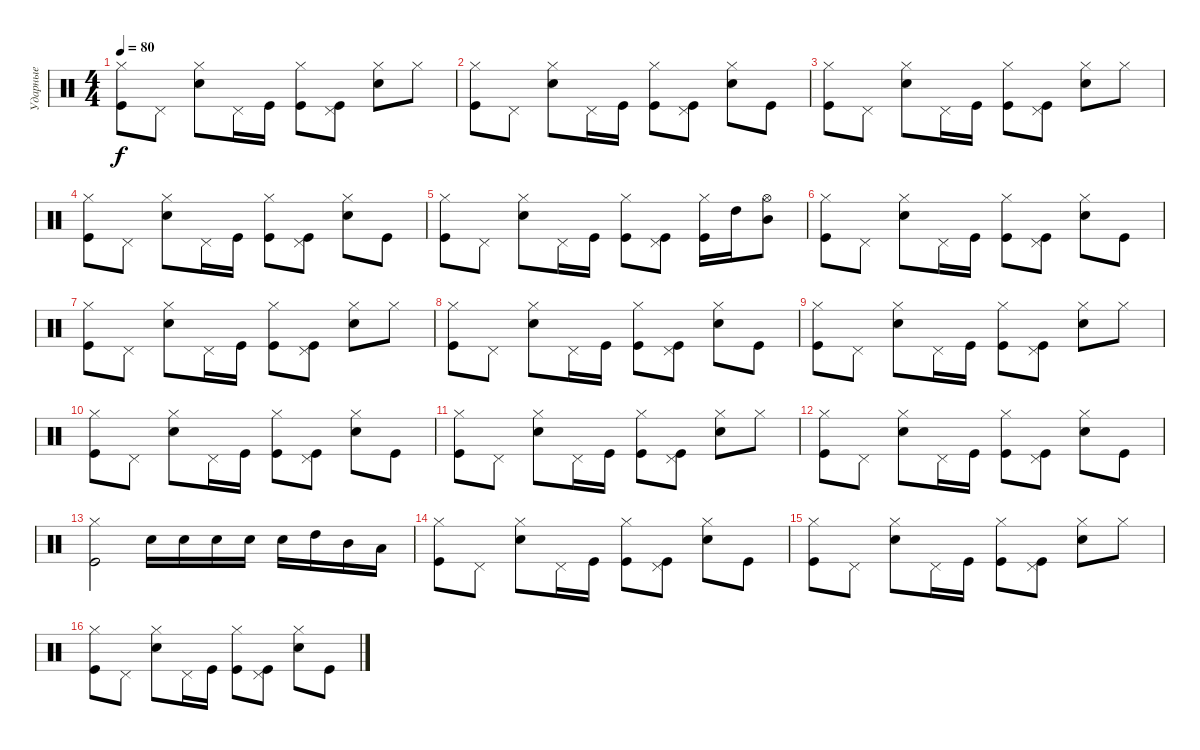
\track ("Ударные" "Ударные") {instrument percussion}
\staff {score}
\articulation defaults
\ts (4 4)
\tempo 80
\clef neutral
\ks c
("Kick (hit)" "Hi-Hat (closed)").8{dy f} "Pedal Hi-Hat (hit)".8 ("Snare (hit) 2" "Hi-Hat (closed)").8 "Pedal Hi-Hat (hit)".16 "Kick (hit)".16 ("Kick (hit)" "Hi-Hat (closed)").8 ("Kick (hit)" "Pedal Hi-Hat (hit)").8 ("Snare (hit) 2" "Hi-Hat (closed)").8 "Hi-Hat (closed)".8 |
("Kick (hit)" "Hi-Hat (closed)").8 "Pedal Hi-Hat (hit)".8 ("Snare (hit) 2" "Hi-Hat (closed)").8 "Pedal Hi-Hat (hit)".16 "Kick (hit)".16 ("Kick (hit)" "Hi-Hat (closed)").8 ("Kick (hit)" "Pedal Hi-Hat (hit)").8 ("Snare (hit) 2" "Hi-Hat (closed)").8 "Kick (hit)".8 |
("Kick (hit)" "Hi-Hat (closed)").8 "Pedal Hi-Hat (hit)".8 ("Snare (hit) 2" "Hi-Hat (closed)").8 "Pedal Hi-Hat (hit)".16 "Kick (hit)".16 ("Kick (hit)" "Hi-Hat (closed)").8 ("Kick (hit)" "Pedal Hi-Hat (hit)").8 ("Snare (hit) 2" "Hi-Hat (closed)").8 "Hi-Hat (closed)".8 |
("Kick (hit)" "Hi-Hat (closed)").8 "Pedal Hi-Hat (hit)".8 ("Snare (hit) 2" "Hi-Hat (closed)").8 "Pedal Hi-Hat (hit)".16 "Kick (hit)".16 ("Kick (hit)" "Hi-Hat (closed)").8 ("Kick (hit)" "Pedal Hi-Hat (hit)").8 ("Snare (hit) 2" "Hi-Hat (closed)").8 "Kick (hit)".8 |
("Kick (hit)" "Hi-Hat (closed)").8 "Pedal Hi-Hat (hit)".8 ("Snare (hit) 2" "Hi-Hat (closed)").8 "Pedal Hi-Hat (hit)".16 "Kick (hit)".16 ("Kick (hit)" "Hi-Hat (closed)").8 ("Kick (hit)" "Pedal Hi-Hat (hit)").8 ("Kick (hit)" "Hi-Hat (closed)").16 "High Tom (hit)".16 ("Mid Tom (hit)" "Hi-Hat (open)").8 |
("Kick (hit)" "Hi-Hat (closed)").8 "Pedal Hi-Hat (hit)".8 ("Snare (hit) 2" "Hi-Hat (closed)").8 "Pedal Hi-Hat (hit)".16 "Kick (hit)".16 ("Kick (hit)" "Hi-Hat (closed)").8 ("Kick (hit)" "Pedal Hi-Hat (hit)").8 ("Snare (hit) 2" "Hi-Hat (closed)").8 "Kick (hit)".8 |
("Kick (hit)" "Hi-Hat (closed)").8 "Pedal Hi-Hat (hit)".8 ("Snare (hit) 2" "Hi-Hat (closed)").8 "Pedal Hi-Hat (hit)".16 "Kick (hit)".16 ("Kick (hit)" "Hi-Hat (closed)").8 ("Kick (hit)" "Pedal Hi-Hat (hit)").8 ("Snare (hit) 2" "Hi-Hat (closed)").8 "Hi-Hat (closed)".8 |
("Kick (hit)" "Hi-Hat (closed)").8 "Pedal Hi-Hat (hit)".8 ("Snare (hit) 2" "Hi-Hat (closed)").8 "Pedal Hi-Hat (hit)".16 "Kick (hit)".16 ("Kick (hit)" "Hi-Hat (closed)").8 ("Kick (hit)" "Pedal Hi-Hat (hit)").8 ("Snare (hit) 2" "Hi-Hat (closed)").8 "Kick (hit)".8 |
("Kick (hit)" "Hi-Hat (closed)").8 "Pedal Hi-Hat (hit)".8 ("Snare (hit) 2" "Hi-Hat (closed)").8 "Pedal Hi-Hat (hit)".16 "Kick (hit)".16 ("Kick (hit)" "Hi-Hat (closed)").8 ("Kick (hit)" "Pedal Hi-Hat (hit)").8 ("Snare (hit) 2" "Hi-Hat (closed)").8 "Hi-Hat (closed)".8 |
("Kick (hit)" "Hi-Hat (closed)").8 "Pedal Hi-Hat (hit)".8 ("Snare (hit) 2" "Hi-Hat (closed)").8 "Pedal Hi-Hat (hit)".16 "Kick (hit)".16 ("Kick (hit)" "Hi-Hat (closed)").8 ("Kick (hit)" "Pedal Hi-Hat (hit)").8 ("Snare (hit) 2" "Hi-Hat (closed)").8 "Kick (hit)".8 |
("Kick (hit)" "Hi-Hat (closed)").8 "Pedal Hi-Hat (hit)".8 ("Snare (hit) 2" "Hi-Hat (closed)").8 "Pedal Hi-Hat (hit)".16 "Kick (hit)".16 ("Kick (hit)" "Hi-Hat (closed)").8 ("Kick (hit)" "Pedal Hi-Hat (hit)").8 ("Snare (hit) 2" "Hi-Hat (closed)").8 "Hi-Hat (closed)".8 |
("Kick (hit)" "Hi-Hat (closed)").8 "Pedal Hi-Hat (hit)".8 ("Snare (hit) 2" "Hi-Hat (closed)").8 "Pedal Hi-Hat (hit)".16 "Kick (hit)".16 ("Kick (hit)" "Hi-Hat (closed)").8 ("Kick (hit)" "Pedal Hi-Hat (hit)").8 ("Snare (hit) 2" "Hi-Hat (closed)").8 "Kick (hit)".8 |
("Kick (hit)" "Hi-Hat (closed)").2 "Snare (hit) 2".16 "Snare (hit) 2".16 "Snare (hit) 2".16 "Snare (hit) 2".16 "Snare (hit) 2".16 "High Tom (hit)".16 "Mid Tom (hit)".16 "Low Floor Tom (hit)".16 |
("Kick (hit)" "Hi-Hat (closed)").8 "Pedal Hi-Hat (hit)".8 ("Snare (hit) 2" "Hi-Hat (closed)").8 "Pedal Hi-Hat (hit)".16 "Kick (hit)".16 ("Kick (hit)" "Hi-Hat (closed)").8 ("Kick (hit)" "Pedal Hi-Hat (hit)").8 ("Snare (hit) 2" "Hi-Hat (closed)").8 "Kick (hit)".8 |
("Kick (hit)" "Hi-Hat (closed)").8 "Pedal Hi-Hat (hit)".8 ("Snare (hit) 2" "Hi-Hat (closed)").8 "Pedal Hi-Hat (hit)".16 "Kick (hit)".16 ("Kick (hit)" "Hi-Hat (closed)").8 ("Kick (hit)" "Pedal Hi-Hat (hit)").8 ("Snare (hit) 2" "Hi-Hat (closed)").8 "Hi-Hat (closed)".8 |
("Kick (hit)" "Hi-Hat (closed)").8 "Pedal Hi-Hat (hit)".8 ("Snare (hit) 2" "Hi-Hat (closed)").8 "Pedal Hi-Hat (hit)".16 "Kick (hit)".16 ("Kick (hit)" "Hi-Hat (closed)").8 ("Kick (hit)" "Pedal Hi-Hat (hit)").8 ("Snare (hit) 2" "Hi-Hat (closed)").8 "Kick (hit)".8
